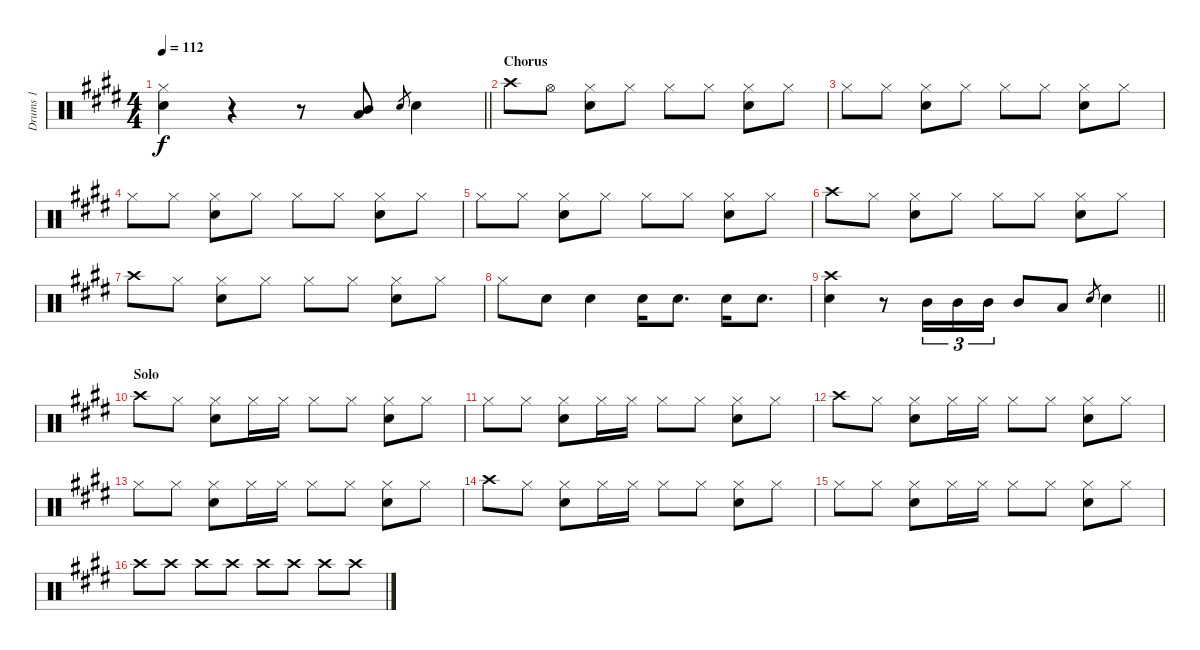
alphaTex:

\track ("Drums 1" "Drums 1") {instrument percussion}
\staff {score}
\articulation defaults
\ts (4 4)
\tempo 112
\clef neutral
\barLineRight lightlight
\ks e
("Hi-Hat (closed)" "Snare (hit) 2").4{dy f} r.4 r.8 ("Mid Tom (hit)" "Low Tom (hit)").8 "Snare (hit) 2".8{gr} "Snare (hit) 2".4 |
\section ("" "Chorus")
"Crash high (hit)".8 "Hi-Hat (open)".8 ("Hi-Hat (closed)" "Snare (hit) 2").8 "Hi-Hat (closed)".8 "Hi-Hat (closed)".8 "Hi-Hat (closed)".8 ("Hi-Hat (closed)" "Snare (hit) 2").8 "Hi-Hat (closed)".8 |
"Hi-Hat (closed)".8 "Hi-Hat (closed)".8 ("Hi-Hat (closed)" "Snare (hit) 2").8 "Hi-Hat (closed)".8 "Hi-Hat (closed)".8 "Hi-Hat (closed)".8 ("Hi-Hat (closed)" "Snare (hit) 2").8 "Hi-Hat (closed)".8 |
"Hi-Hat (closed)".8 "Hi-Hat (closed)".8 ("Hi-Hat (closed)" "Snare (hit) 2").8 "Hi-Hat (closed)".8 "Hi-Hat (closed)".8 "Hi-Hat (closed)".8 ("Hi-Hat (closed)" "Snare (hit) 2").8 "Hi-Hat (closed)".8 |
"Hi-Hat (closed)".8 "Hi-Hat (closed)".8 ("Hi-Hat (closed)" "Snare (hit) 2").8 "Hi-Hat (closed)".8 "Hi-Hat (closed)".8 "Hi-Hat (closed)".8 ("Hi-Hat (closed)" "Snare (hit) 2").8 "Hi-Hat (closed)".8 |
"Crash high (hit)".8 "Hi-Hat (closed)".8 ("Hi-Hat (closed)" "Snare (hit) 2").8 "Hi-Hat (closed)".8 "Hi-Hat (closed)".8 "Hi-Hat (closed)".8 ("Hi-Hat (closed)" "Snare (hit) 2").8 "Hi-Hat (closed)".8 |
"Crash high (hit)".8 "Hi-Hat (closed)".8 ("Hi-Hat (closed)" "Snare (hit) 2").8 "Hi-Hat (closed)".8 "Hi-Hat (closed)".8 "Hi-Hat (closed)".8 ("Hi-Hat (closed)" "Snare (hit) 2").8 "Hi-Hat (closed)".8 |
"Hi-Hat (closed)".8 "Snare (hit) 2".8 "Snare (hit) 2".4 "Snare (hit) 2".16 "Snare (hit) 2".8{d} "Snare (hit) 2".16 "Snare (hit) 2".8{d} |
\barLineRight lightlight
("Crash high (hit)" "Snare (hit) 2").4 r.8 "Mid Tom (hit)".16{tu (3 2)} "Mid Tom (hit)".16{tu (3 2)} "Mid Tom (hit)".16{tu (3 2)} "Mid Tom (hit)".8 "Low Tom (hit)".8 "Snare (hit) 2".8{gr} "Snare (hit) 2".4 |
\section ("" "Solo")
"Crash high (hit)".8 "Hi-Hat (closed)".8 ("Hi-Hat (closed)" "Snare (hit) 2").8 "Hi-Hat (closed)".16 "Hi-Hat (closed)".16 "Hi-Hat (closed)".8 "Hi-Hat (closed)".8 ("Hi-Hat (closed)" "Snare (hit) 2").8 "Hi-Hat (closed)".8 |
"Hi-Hat (closed)".8 "Hi-Hat (closed)".8 ("Hi-Hat (closed)" "Snare (hit) 2").8 "Hi-Hat (closed)".16 "Hi-Hat (closed)".16 "Hi-Hat (closed)".8 "Hi-Hat (closed)".8 ("Hi-Hat (closed)" "Snare (hit) 2").8 "Hi-Hat (closed)".8 |
"Crash high (hit)".8 "Hi-Hat (closed)".8 ("Hi-Hat (closed)" "Snare (hit) 2").8 "Hi-Hat (closed)".16 "Hi-Hat (closed)".16 "Hi-Hat (closed)".8 "Hi-Hat (closed)".8 ("Hi-Hat (closed)" "Snare (hit) 2").8 "Hi-Hat (closed)".8 |
"Hi-Hat (closed)".8 "Hi-Hat (closed)".8 ("Hi-Hat (closed)" "Snare (hit) 2").8 "Hi-Hat (closed)".16 "Hi-Hat (closed)".16 "Hi-Hat (closed)".8 "Hi-Hat (closed)".8 ("Hi-Hat (closed)" "Snare (hit) 2").8 "Hi-Hat (closed)".8 |
"Crash high (hit)".8 "Hi-Hat (closed)".8 ("Hi-Hat (closed)" "Snare (hit) 2").8 "Hi-Hat (closed)".16 "Hi-Hat (closed)".16 "Hi-Hat (closed)".8 "Hi-Hat (closed)".8 ("Hi-Hat (closed)" "Snare (hit) 2").8 "Hi-Hat (closed)".8 |
"Hi-Hat (closed)".8 "Hi-Hat (closed)".8 ("Hi-Hat (closed)" "Snare (hit) 2").8 "Hi-Hat (closed)".16 "Hi-Hat (closed)".16 "Hi-Hat (closed)".8 "Hi-Hat (closed)".8 ("Hi-Hat (closed)" "Snare (hit) 2").8 "Hi-Hat (closed)".8 |
"Crash high (hit)".8 "Crash high (hit)".8 "Crash high (hit)".8 "Crash high (hit)".8 "Crash high (hit)".8 "Crash high (hit)".8 "Crash high (hit)".8 "Crash high (hit)".8
